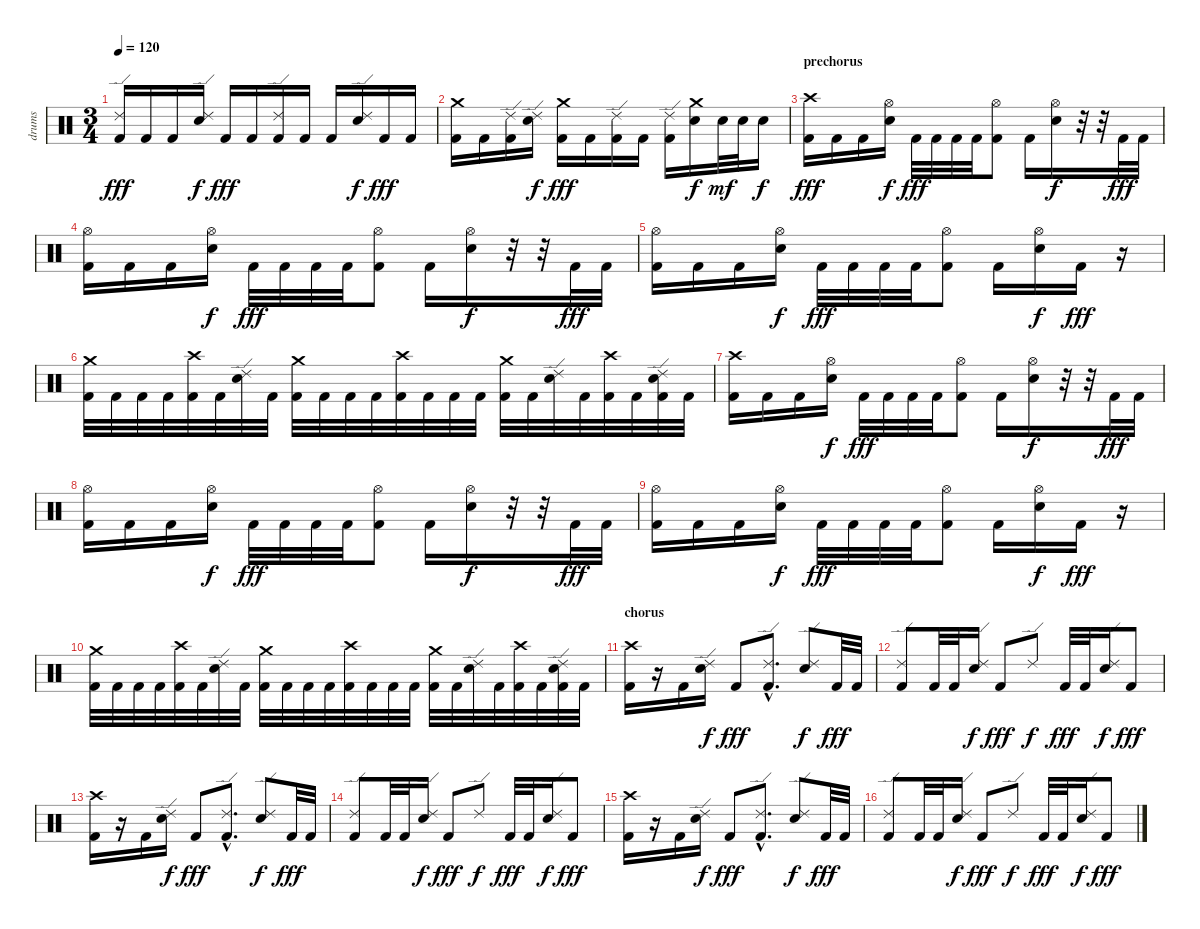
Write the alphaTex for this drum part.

\track ("drums" "drums") {instrument percussion}
\staff {score}
\articulation defaults
\ts (3 4)
\tempo 120
\clef neutral
\ks c
("Ride (edge) 2" "Kick (hit) 2").16{dy fff} "Kick (hit) 2".16 "Kick (hit) 2".16 ("Ride (edge) 2" "Snare (hit) 2").16{dy f} "Kick (hit) 2".16{dy fff} "Kick (hit) 2".16 ("Ride (edge) 2" "Kick (hit) 2").16 "Kick (hit) 2".16 "Kick (hit) 2".16 ("Ride (edge) 2" "Snare (hit) 2").16{dy f} "Kick (hit) 2".16{dy fff} "Kick (hit) 2".16 |
("Crash medium (hit)" "Kick (hit) 2").16 "Kick (hit) 2".16 ("Ride (edge) 2" "Kick (hit) 2").16 ("Ride (edge) 2" "Snare (hit) 2").16{dy f} ("Crash medium (hit)" "Kick (hit) 2").16{dy fff} "Kick (hit) 2".16 ("Ride (edge) 2" "Kick (hit) 2").16 "Kick (hit) 2".16 ("Ride (edge) 2" "Kick (hit) 2").16 ("Crash medium (hit)" "Snare (hit) 2").16{dy f} "Snare (hit) 2".32{dy mf} "Snare (hit) 2".32 "Snare (hit) 2".16{dy f} |
\section ("" "prechorus")
("Crash high (hit)" "Kick (hit) 2").16{dy fff} "Kick (hit) 2".16 "Kick (hit) 2".16 ("Hi-Hat (open)" "Snare (hit) 2").16{dy f} "Kick (hit) 2".32{dy fff} "Kick (hit) 2".32 "Kick (hit) 2".32 "Kick (hit) 2".32 ("Hi-Hat (open)" "Kick (hit) 2").8 "Kick (hit) 2".16 ("Hi-Hat (open)" "Snare (hit) 2").16{dy f} r.32 r.32 "Kick (hit) 2".32{dy fff} "Kick (hit) 2".32 |
("Hi-Hat (open)" "Kick (hit) 2").16 "Kick (hit) 2".16 "Kick (hit) 2".16 ("Hi-Hat (open)" "Snare (hit) 2").16{dy f} "Kick (hit) 2".32{dy fff} "Kick (hit) 2".32 "Kick (hit) 2".32 "Kick (hit) 2".32 ("Hi-Hat (open)" "Kick (hit) 2").8 "Kick (hit) 2".16 ("Hi-Hat (open)" "Snare (hit) 2").16{dy f} r.32 r.32 "Kick (hit) 2".32{dy fff} "Kick (hit) 2".32 |
("Hi-Hat (open)" "Kick (hit) 2").16 "Kick (hit) 2".16 "Kick (hit) 2".16 ("Hi-Hat (open)" "Snare (hit) 2").16{dy f} "Kick (hit) 2".32{dy fff} "Kick (hit) 2".32 "Kick (hit) 2".32 "Kick (hit) 2".32 ("Hi-Hat (open)" "Kick (hit) 2").8 "Kick (hit) 2".16 ("Hi-Hat (open)" "Snare (hit) 2").16{dy f} "Kick (hit) 2".16{dy fff} r.16 |
("Crash medium (hit)" "Kick (hit) 2").32 "Kick (hit) 2".32 "Kick (hit) 2".32 "Kick (hit) 2".32 ("Crash high (hit)" "Kick (hit) 2").32 "Kick (hit) 2".32 ("Ride (edge) 2" "Snare (hit) 2").32 "Kick (hit) 2".32 ("Crash medium (hit)" "Kick (hit) 2").32 "Kick (hit) 2".32 "Kick (hit) 2".32 "Kick (hit) 2".32 ("Crash high (hit)" "Kick (hit) 2").32 "Kick (hit) 2".32 "Kick (hit) 2".32 "Kick (hit) 2".32 ("Crash medium (hit)" "Kick (hit) 2").32 "Kick (hit) 2".32 ("Ride (edge) 2" "Snare (hit) 2").32 "Kick (hit) 2".32 ("Crash high (hit)" "Kick (hit) 2").32 "Kick (hit) 2".32 ("Ride (edge) 2" "Snare (hit) 2" "Kick (hit) 2").32 "Kick (hit) 2".32 |
("Crash high (hit)" "Kick (hit) 2").16 "Kick (hit) 2".16 "Kick (hit) 2".16 ("Hi-Hat (open)" "Snare (hit) 2").16{dy f} "Kick (hit) 2".32{dy fff} "Kick (hit) 2".32 "Kick (hit) 2".32 "Kick (hit) 2".32 ("Hi-Hat (open)" "Kick (hit) 2").8 "Kick (hit) 2".16 ("Hi-Hat (open)" "Snare (hit) 2").16{dy f} r.32 r.32 "Kick (hit) 2".32{dy fff} "Kick (hit) 2".32 |
("Hi-Hat (open)" "Kick (hit) 2").16 "Kick (hit) 2".16 "Kick (hit) 2".16 ("Hi-Hat (open)" "Snare (hit) 2").16{dy f} "Kick (hit) 2".32{dy fff} "Kick (hit) 2".32 "Kick (hit) 2".32 "Kick (hit) 2".32 ("Hi-Hat (open)" "Kick (hit) 2").8 "Kick (hit) 2".16 ("Hi-Hat (open)" "Snare (hit) 2").16{dy f} r.32 r.32 "Kick (hit) 2".32{dy fff} "Kick (hit) 2".32 |
("Hi-Hat (open)" "Kick (hit) 2").16 "Kick (hit) 2".16 "Kick (hit) 2".16 ("Hi-Hat (open)" "Snare (hit) 2").16{dy f} "Kick (hit) 2".32{dy fff} "Kick (hit) 2".32 "Kick (hit) 2".32 "Kick (hit) 2".32 ("Hi-Hat (open)" "Kick (hit) 2").8 "Kick (hit) 2".16 ("Hi-Hat (open)" "Snare (hit) 2").16{dy f} "Kick (hit) 2".16{dy fff} r.16 |
("Crash medium (hit)" "Kick (hit) 2").32 "Kick (hit) 2".32 "Kick (hit) 2".32 "Kick (hit) 2".32 ("Crash high (hit)" "Kick (hit) 2").32 "Kick (hit) 2".32 ("Ride (edge) 2" "Snare (hit) 2").32 "Kick (hit) 2".32 ("Crash medium (hit)" "Kick (hit) 2").32 "Kick (hit) 2".32 "Kick (hit) 2".32 "Kick (hit) 2".32 ("Crash high (hit)" "Kick (hit) 2").32 "Kick (hit) 2".32 "Kick (hit) 2".32 "Kick (hit) 2".32 ("Crash medium (hit)" "Kick (hit) 2").32 "Kick (hit) 2".32 ("Ride (edge) 2" "Snare (hit) 2").32 "Kick (hit) 2".32 ("Crash high (hit)" "Kick (hit) 2").32 "Kick (hit) 2".32 ("Ride (edge) 2" "Snare (hit) 2" "Kick (hit) 2").32 "Kick (hit) 2".32 |
\section ("" "chorus")
("Crash high (hit)" "Kick (hit) 2").16 r.16 "Kick (hit) 2".16 ("Ride (edge) 2" "Snare (hit) 2").16{dy f} "Kick (hit) 2".8{dy fff} ("Ride (edge) 2"{hac} "Kick (hit) 2"{hac}).8{d} ("Ride (edge) 2" "Snare (hit) 2").8{dy f} "Kick (hit) 2".32{dy fff} "Kick (hit) 2".32 |
("Ride (edge) 2" "Kick (hit) 2").8 "Kick (hit) 2".32 "Kick (hit) 2".32 ("Ride (edge) 2" "Snare (hit) 2").16{dy f} "Kick (hit) 2".8{dy fff} "Ride (edge) 2".8{dy f} "Kick (hit) 2".32{dy fff} "Kick (hit) 2".32 ("Ride (edge) 2" "Snare (hit) 2").16{dy f} "Kick (hit) 2".8{dy fff} |
("Crash high (hit)" "Kick (hit) 2").16 r.16 "Kick (hit) 2".16 ("Ride (edge) 2" "Snare (hit) 2").16{dy f} "Kick (hit) 2".8{dy fff} ("Ride (edge) 2"{hac} "Kick (hit) 2"{hac}).8{d} ("Ride (edge) 2" "Snare (hit) 2").8{dy f} "Kick (hit) 2".32{dy fff} "Kick (hit) 2".32 |
("Ride (edge) 2" "Kick (hit) 2").8 "Kick (hit) 2".32 "Kick (hit) 2".32 ("Ride (edge) 2" "Snare (hit) 2").16{dy f} "Kick (hit) 2".8{dy fff} "Ride (edge) 2".8{dy f} "Kick (hit) 2".32{dy fff} "Kick (hit) 2".32 ("Ride (edge) 2" "Snare (hit) 2").16{dy f} "Kick (hit) 2".8{dy fff} |
("Crash high (hit)" "Kick (hit) 2").16 r.16 "Kick (hit) 2".16 ("Ride (edge) 2" "Snare (hit) 2").16{dy f} "Kick (hit) 2".8{dy fff} ("Ride (edge) 2"{hac} "Kick (hit) 2"{hac}).8{d} ("Ride (edge) 2" "Snare (hit) 2").8{dy f} "Kick (hit) 2".32{dy fff} "Kick (hit) 2".32 |
("Ride (edge) 2" "Kick (hit) 2").8 "Kick (hit) 2".32 "Kick (hit) 2".32 ("Ride (edge) 2" "Snare (hit) 2").16{dy f} "Kick (hit) 2".8{dy fff} "Ride (edge) 2".8{dy f} "Kick (hit) 2".32{dy fff} "Kick (hit) 2".32 ("Ride (edge) 2" "Snare (hit) 2").16{dy f} "Kick (hit) 2".8{dy fff}
